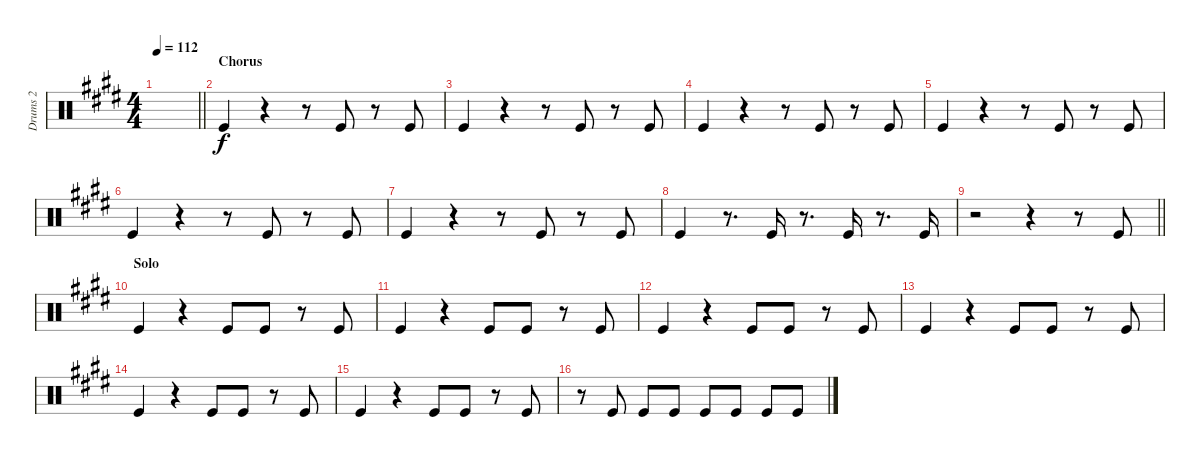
\track ("Drums 2" "Drums 2") {instrument percussion}
\staff {score}
\articulation defaults
\ts (4 4)
\tempo 112
\clef neutral
\barLineRight lightlight
\ks e
|
\section ("" "Chorus")
"Kick (hit)".4 r.4 r.8 "Kick (hit)".8 r.8 "Kick (hit)".8 |
"Kick (hit)".4 r.4 r.8 "Kick (hit)".8 r.8 "Kick (hit)".8 |
"Kick (hit)".4 r.4 r.8 "Kick (hit)".8 r.8 "Kick (hit)".8 |
"Kick (hit)".4 r.4 r.8 "Kick (hit)".8 r.8 "Kick (hit)".8 |
"Kick (hit)".4 r.4 r.8 "Kick (hit)".8 r.8 "Kick (hit)".8 |
"Kick (hit)".4 r.4 r.8 "Kick (hit)".8 r.8 "Kick (hit)".8 |
"Kick (hit)".4 r.8{d} "Kick (hit)".16 r.8{d} "Kick (hit)".16 r.8{d} "Kick (hit)".16 |
\barLineRight lightlight
r.2 r.4 r.8 "Kick (hit)".8 |
\section ("" "Solo")
"Kick (hit)".4 r.4 "Kick (hit)".8 "Kick (hit)".8 r.8 "Kick (hit)".8 |
"Kick (hit)".4 r.4 "Kick (hit)".8 "Kick (hit)".8 r.8 "Kick (hit)".8 |
"Kick (hit)".4 r.4 "Kick (hit)".8 "Kick (hit)".8 r.8 "Kick (hit)".8 |
"Kick (hit)".4 r.4 "Kick (hit)".8 "Kick (hit)".8 r.8 "Kick (hit)".8 |
"Kick (hit)".4 r.4 "Kick (hit)".8 "Kick (hit)".8 r.8 "Kick (hit)".8 |
"Kick (hit)".4 r.4 "Kick (hit)".8 "Kick (hit)".8 r.8 "Kick (hit)".8 |
r.8 "Kick (hit)".8 "Kick (hit)".8 "Kick (hit)".8 "Kick (hit)".8 "Kick (hit)".8 "Kick (hit)".8 "Kick (hit)".8
